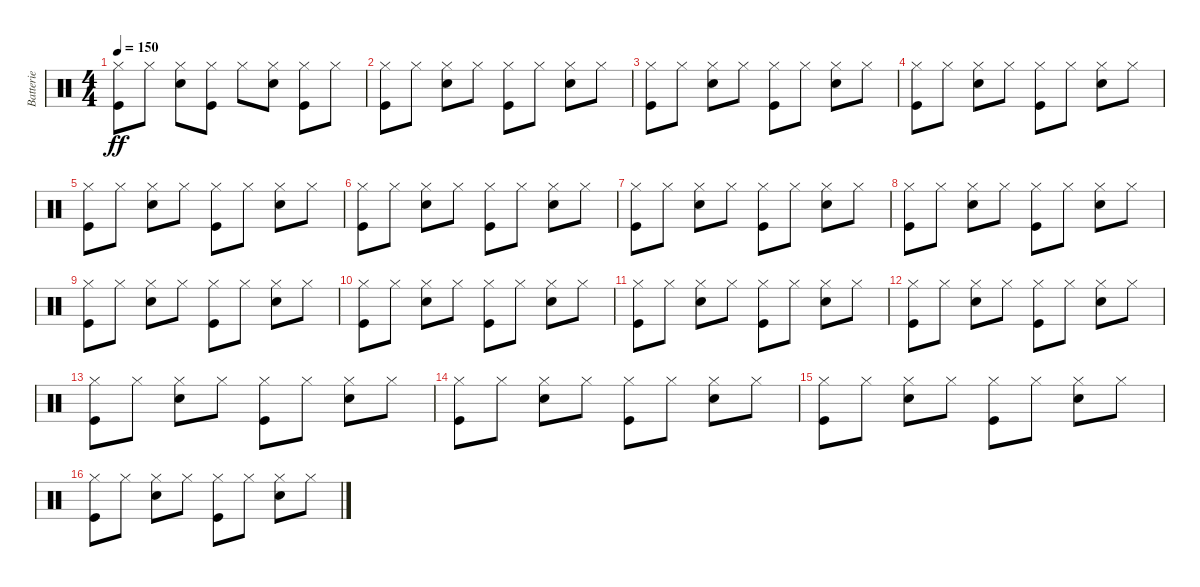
\track ("Batterie" "Batterie") {instrument percussion}
\staff {score}
\articulation defaults
\ts (4 4)
\tempo 150
\clef neutral
\ks c
("Kick (hit)" "Hi-Hat (closed)").8{dy ff} "Hi-Hat (closed)".8 ("Electric Snare (hit)" "Hi-Hat (closed)").8 ("Kick (hit)" "Hi-Hat (closed)").8 "Hi-Hat (closed)".8 ("Electric Snare (hit)" "Hi-Hat (closed)").8 ("Kick (hit)" "Hi-Hat (closed)").8 "Hi-Hat (closed)".8 |
("Kick (hit)" "Hi-Hat (closed)").8 "Hi-Hat (closed)".8 ("Electric Snare (hit)" "Hi-Hat (closed)").8 "Hi-Hat (closed)".8 ("Kick (hit)" "Hi-Hat (closed)").8 "Hi-Hat (closed)".8 ("Electric Snare (hit)" "Hi-Hat (closed)").8 "Hi-Hat (closed)".8 |
("Kick (hit)" "Hi-Hat (closed)").8 "Hi-Hat (closed)".8 ("Electric Snare (hit)" "Hi-Hat (closed)").8 "Hi-Hat (closed)".8 ("Kick (hit)" "Hi-Hat (closed)").8 "Hi-Hat (closed)".8 ("Electric Snare (hit)" "Hi-Hat (closed)").8 "Hi-Hat (closed)".8 |
("Kick (hit)" "Hi-Hat (closed)").8 "Hi-Hat (closed)".8 ("Electric Snare (hit)" "Hi-Hat (closed)").8 "Hi-Hat (closed)".8 ("Kick (hit)" "Hi-Hat (closed)").8 "Hi-Hat (closed)".8 ("Electric Snare (hit)" "Hi-Hat (closed)").8 "Hi-Hat (closed)".8 |
("Kick (hit)" "Hi-Hat (closed)").8 "Hi-Hat (closed)".8 ("Electric Snare (hit)" "Hi-Hat (closed)").8 "Hi-Hat (closed)".8 ("Kick (hit)" "Hi-Hat (closed)").8 "Hi-Hat (closed)".8 ("Electric Snare (hit)" "Hi-Hat (closed)").8 "Hi-Hat (closed)".8 |
("Kick (hit)" "Hi-Hat (closed)").8 "Hi-Hat (closed)".8 ("Electric Snare (hit)" "Hi-Hat (closed)").8 "Hi-Hat (closed)".8 ("Kick (hit)" "Hi-Hat (closed)").8 "Hi-Hat (closed)".8 ("Electric Snare (hit)" "Hi-Hat (closed)").8 "Hi-Hat (closed)".8 |
("Kick (hit)" "Hi-Hat (closed)").8 "Hi-Hat (closed)".8 ("Electric Snare (hit)" "Hi-Hat (closed)").8 "Hi-Hat (closed)".8 ("Kick (hit)" "Hi-Hat (closed)").8 "Hi-Hat (closed)".8 ("Electric Snare (hit)" "Hi-Hat (closed)").8 "Hi-Hat (closed)".8 |
("Kick (hit)" "Hi-Hat (closed)").8 "Hi-Hat (closed)".8 ("Electric Snare (hit)" "Hi-Hat (closed)").8 "Hi-Hat (closed)".8 ("Kick (hit)" "Hi-Hat (closed)").8 "Hi-Hat (closed)".8 ("Electric Snare (hit)" "Hi-Hat (closed)").8 "Hi-Hat (closed)".8 |
("Kick (hit)" "Hi-Hat (closed)").8 "Hi-Hat (closed)".8 ("Electric Snare (hit)" "Hi-Hat (closed)").8 "Hi-Hat (closed)".8 ("Kick (hit)" "Hi-Hat (closed)").8 "Hi-Hat (closed)".8 ("Electric Snare (hit)" "Hi-Hat (closed)").8 "Hi-Hat (closed)".8 |
("Kick (hit)" "Hi-Hat (closed)").8 "Hi-Hat (closed)".8 ("Electric Snare (hit)" "Hi-Hat (closed)").8 "Hi-Hat (closed)".8 ("Kick (hit)" "Hi-Hat (closed)").8 "Hi-Hat (closed)".8 ("Electric Snare (hit)" "Hi-Hat (closed)").8 "Hi-Hat (closed)".8 |
("Kick (hit)" "Hi-Hat (closed)").8 "Hi-Hat (closed)".8 ("Electric Snare (hit)" "Hi-Hat (closed)").8 "Hi-Hat (closed)".8 ("Kick (hit)" "Hi-Hat (closed)").8 "Hi-Hat (closed)".8 ("Electric Snare (hit)" "Hi-Hat (closed)").8 "Hi-Hat (closed)".8 |
("Kick (hit)" "Hi-Hat (closed)").8 "Hi-Hat (closed)".8 ("Electric Snare (hit)" "Hi-Hat (closed)").8 "Hi-Hat (closed)".8 ("Kick (hit)" "Hi-Hat (closed)").8 "Hi-Hat (closed)".8 ("Electric Snare (hit)" "Hi-Hat (closed)").8 "Hi-Hat (closed)".8 |
("Kick (hit)" "Hi-Hat (closed)").8 "Hi-Hat (closed)".8 ("Electric Snare (hit)" "Hi-Hat (closed)").8 "Hi-Hat (closed)".8 ("Kick (hit)" "Hi-Hat (closed)").8 "Hi-Hat (closed)".8 ("Electric Snare (hit)" "Hi-Hat (closed)").8 "Hi-Hat (closed)".8 |
("Kick (hit)" "Hi-Hat (closed)").8 "Hi-Hat (closed)".8 ("Electric Snare (hit)" "Hi-Hat (closed)").8 "Hi-Hat (closed)".8 ("Kick (hit)" "Hi-Hat (closed)").8 "Hi-Hat (closed)".8 ("Electric Snare (hit)" "Hi-Hat (closed)").8 "Hi-Hat (closed)".8 |
("Kick (hit)" "Hi-Hat (closed)").8 "Hi-Hat (closed)".8 ("Electric Snare (hit)" "Hi-Hat (closed)").8 "Hi-Hat (closed)".8 ("Kick (hit)" "Hi-Hat (closed)").8 "Hi-Hat (closed)".8 ("Electric Snare (hit)" "Hi-Hat (closed)").8 "Hi-Hat (closed)".8 |
("Kick (hit)" "Hi-Hat (closed)").8 "Hi-Hat (closed)".8 ("Electric Snare (hit)" "Hi-Hat (closed)").8 "Hi-Hat (closed)".8 ("Kick (hit)" "Hi-Hat (closed)").8 "Hi-Hat (closed)".8 ("Electric Snare (hit)" "Hi-Hat (closed)").8 "Hi-Hat (closed)".8
